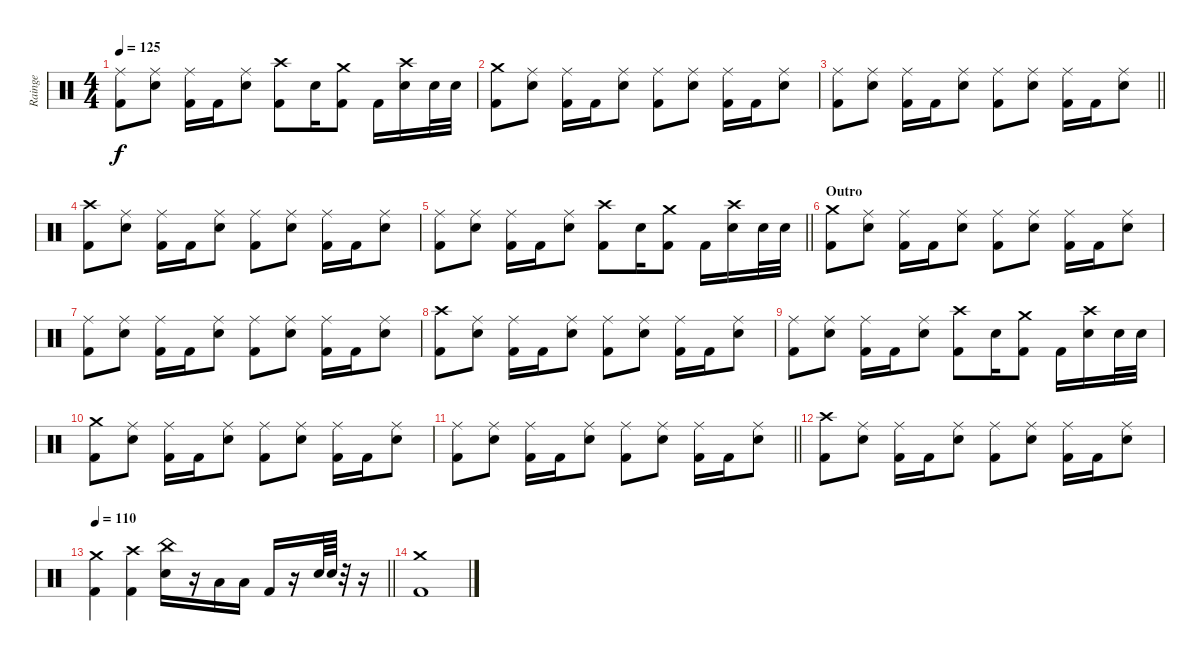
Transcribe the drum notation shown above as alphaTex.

\track ("Rainge" "Rainge") {instrument percussion}
\staff {score}
\articulation defaults
\ts (4 4)
\tempo 125
\clef neutral
\ks c
("Ride (middle)" "Kick (hit) 2").8{dy f} ("Ride (middle)" "Electric Snare (hit)").8 ("Ride (middle)" "Kick (hit) 2").16 "Kick (hit) 2".16 ("Ride (middle)" "Electric Snare (hit)").8 ("Crash high (hit)" "Kick (hit) 2").8 "Electric Snare (hit)".16 ("Crash medium (hit)" "Kick (hit) 2").8 "Kick (hit) 2".16 ("Crash high (hit)" "Electric Snare (hit)").16 "Electric Snare (hit)".32 "Electric Snare (hit)".32 |
("Crash medium (hit)" "Kick (hit) 2").8 ("Ride (middle)" "Electric Snare (hit)").8 ("Ride (middle)" "Kick (hit) 2").16 "Kick (hit) 2".16 ("Ride (middle)" "Electric Snare (hit)").8 ("Ride (middle)" "Kick (hit) 2").8 ("Ride (middle)" "Electric Snare (hit)").8 ("Ride (middle)" "Kick (hit) 2").16 "Kick (hit) 2".16 ("Ride (middle)" "Electric Snare (hit)").8 |
\barLineRight lightlight
("Ride (middle)" "Kick (hit) 2").8 ("Ride (middle)" "Electric Snare (hit)").8 ("Ride (middle)" "Kick (hit) 2").16 "Kick (hit) 2".16 ("Ride (middle)" "Electric Snare (hit)").8 ("Ride (middle)" "Kick (hit) 2").8 ("Ride (middle)" "Electric Snare (hit)").8 ("Ride (middle)" "Kick (hit) 2").16 "Kick (hit) 2".16 ("Ride (middle)" "Electric Snare (hit)").8 |
("Crash high (hit)" "Kick (hit) 2").8 ("Ride (middle)" "Electric Snare (hit)").8 ("Ride (middle)" "Kick (hit) 2").16 "Kick (hit) 2".16 ("Ride (middle)" "Electric Snare (hit)").8 ("Ride (middle)" "Kick (hit) 2").8 ("Ride (middle)" "Electric Snare (hit)").8 ("Ride (middle)" "Kick (hit) 2").16 "Kick (hit) 2".16 ("Ride (middle)" "Electric Snare (hit)").8 |
\barLineRight lightlight
("Ride (middle)" "Kick (hit) 2").8 ("Ride (middle)" "Electric Snare (hit)").8 ("Ride (middle)" "Kick (hit) 2").16 "Kick (hit) 2".16 ("Ride (middle)" "Electric Snare (hit)").8 ("Crash high (hit)" "Kick (hit) 2").8 "Electric Snare (hit)".16 ("Crash medium (hit)" "Kick (hit) 2").8 "Kick (hit) 2".16 ("Crash high (hit)" "Electric Snare (hit)").16 "Electric Snare (hit)".32 "Electric Snare (hit)".32 |
\section ("" "Outro")
("Crash medium (hit)" "Kick (hit) 2").8 ("Ride (middle)" "Electric Snare (hit)").8 ("Ride (middle)" "Kick (hit) 2").16 "Kick (hit) 2".16 ("Ride (middle)" "Electric Snare (hit)").8 ("Ride (middle)" "Kick (hit) 2").8 ("Ride (middle)" "Electric Snare (hit)").8 ("Ride (middle)" "Kick (hit) 2").16 "Kick (hit) 2".16 ("Ride (middle)" "Electric Snare (hit)").8 |
("Ride (middle)" "Kick (hit) 2").8 ("Ride (middle)" "Electric Snare (hit)").8 ("Ride (middle)" "Kick (hit) 2").16 "Kick (hit) 2".16 ("Ride (middle)" "Electric Snare (hit)").8 ("Ride (middle)" "Kick (hit) 2").8 ("Ride (middle)" "Electric Snare (hit)").8 ("Ride (middle)" "Kick (hit) 2").16 "Kick (hit) 2".16 ("Ride (middle)" "Electric Snare (hit)").8 |
("Crash high (hit)" "Kick (hit) 2").8 ("Ride (middle)" "Electric Snare (hit)").8 ("Ride (middle)" "Kick (hit) 2").16 "Kick (hit) 2".16 ("Ride (middle)" "Electric Snare (hit)").8 ("Ride (middle)" "Kick (hit) 2").8 ("Ride (middle)" "Electric Snare (hit)").8 ("Ride (middle)" "Kick (hit) 2").16 "Kick (hit) 2".16 ("Ride (middle)" "Electric Snare (hit)").8 |
("Ride (middle)" "Kick (hit) 2").8 ("Ride (middle)" "Electric Snare (hit)").8 ("Ride (middle)" "Kick (hit) 2").16 "Kick (hit) 2".16 ("Ride (middle)" "Electric Snare (hit)").8 ("Crash high (hit)" "Kick (hit) 2").8 "Electric Snare (hit)".16 ("Crash medium (hit)" "Kick (hit) 2").8 "Kick (hit) 2".16 ("Crash high (hit)" "Electric Snare (hit)").16 "Electric Snare (hit)".32 "Electric Snare (hit)".32 |
("Crash medium (hit)" "Kick (hit) 2").8 ("Ride (middle)" "Electric Snare (hit)").8 ("Ride (middle)" "Kick (hit) 2").16 "Kick (hit) 2".16 ("Ride (middle)" "Electric Snare (hit)").8 ("Ride (middle)" "Kick (hit) 2").8 ("Ride (middle)" "Electric Snare (hit)").8 ("Ride (middle)" "Kick (hit) 2").16 "Kick (hit) 2".16 ("Ride (middle)" "Electric Snare (hit)").8 |
\barLineRight lightlight
("Ride (middle)" "Kick (hit) 2").8 ("Ride (middle)" "Electric Snare (hit)").8 ("Ride (middle)" "Kick (hit) 2").16 "Kick (hit) 2".16 ("Ride (middle)" "Electric Snare (hit)").8 ("Ride (middle)" "Kick (hit) 2").8 ("Ride (middle)" "Electric Snare (hit)").8 ("Ride (middle)" "Kick (hit) 2").16 "Kick (hit) 2".16 ("Ride (middle)" "Electric Snare (hit)").8 |
("Crash high (hit)" "Kick (hit) 2").8 ("Ride (middle)" "Electric Snare (hit)").8 ("Ride (middle)" "Kick (hit) 2").16 "Kick (hit) 2".16 ("Ride (middle)" "Electric Snare (hit)").8 ("Ride (middle)" "Kick (hit) 2").8 ("Ride (middle)" "Electric Snare (hit)").8 ("Ride (middle)" "Kick (hit) 2").16 "Kick (hit) 2".16 ("Ride (middle)" "Electric Snare (hit)").8 |
\tempo 110
\barLineRight lightlight
("Crash medium (hit)" "Kick (hit) 2").4 ("Crash high (hit)" "Kick (hit) 2").4 ("China (hit)" "Electric Snare (hit)").16 r.16 "Low Tom (hit)".16 "Low Tom (hit)".16 "Kick (hit) 2".16 r.16 "Electric Snare (hit)".64 "Electric Snare (hit)".64 r.32 r.16 |
("Crash medium (hit)" "Kick (hit) 2").1
